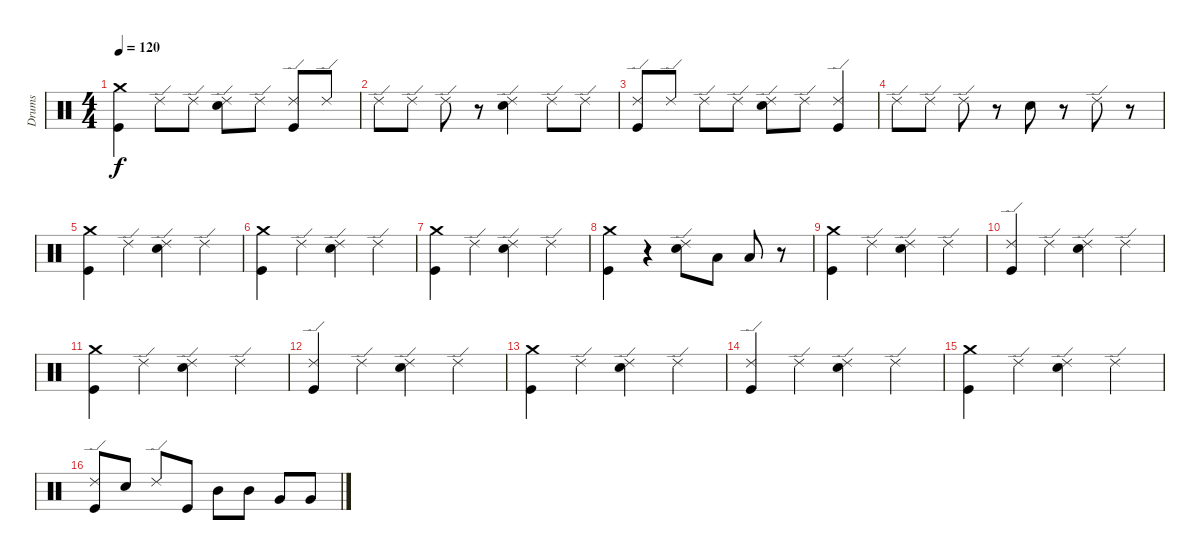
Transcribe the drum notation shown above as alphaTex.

\track ("Drums" "Drums") {instrument percussion}
\staff {score}
\articulation defaults
\ts (4 4)
\tempo 120
\clef neutral
\ks c
("Kick (hit)" "Crash medium (hit)").4{dy f} "Ride (edge) 2".8 "Ride (edge) 2".8 ("Snare (hit) 2" "Ride (edge) 2").8 "Ride (edge) 2".8 ("Kick (hit)" "Ride (edge) 2").8 "Ride (edge) 2".8 |
"Ride (edge) 2".8 "Ride (edge) 2".8 "Ride (edge) 2".8 r.8 ("Ride (edge) 2" "Snare (hit) 2").4 "Ride (edge) 2".8 "Ride (edge) 2".8 |
("Ride (edge) 2" "Kick (hit)").8 "Ride (edge) 2".8 "Ride (edge) 2".8 "Ride (edge) 2".8 ("Ride (edge) 2" "Snare (hit) 2").8 "Ride (edge) 2".8 ("Ride (edge) 2" "Kick (hit)").4 |
"Ride (edge) 2".8 "Ride (edge) 2".8 "Ride (edge) 2".8 r.8 "Snare (hit) 2".8 r.8 "Ride (edge) 2".8 r.8 |
("Crash medium (hit)" "Kick (hit)").4 "Ride (edge) 2".4 ("Snare (hit) 2" "Ride (edge) 2").4 "Ride (edge) 2".4 |
("Crash medium (hit)" "Kick (hit)").4 "Ride (edge) 2".4 ("Snare (hit) 2" "Ride (edge) 2").4 "Ride (edge) 2".4 |
("Crash medium (hit)" "Kick (hit)").4 "Ride (edge) 2".4 ("Snare (hit) 2" "Ride (edge) 2").4 "Ride (edge) 2".4 |
("Crash medium (hit)" "Kick (hit)").4 r.4 ("Ride (edge) 2" "Snare (hit) 2").8 "Low Floor Tom (hit)".8 "Low Floor Tom (hit)".8 r.8 |
("Crash medium (hit)" "Kick (hit)").4 "Ride (edge) 2".4 ("Snare (hit) 2" "Ride (edge) 2").4 "Ride (edge) 2".4 |
("Ride (edge) 2" "Kick (hit)").4 "Ride (edge) 2".4 ("Ride (edge) 2" "Snare (hit) 2").4 "Ride (edge) 2".4 |
("Crash medium (hit)" "Kick (hit)").4 "Ride (edge) 2".4 ("Snare (hit) 2" "Ride (edge) 2").4 "Ride (edge) 2".4 |
("Ride (edge) 2" "Kick (hit)").4 "Ride (edge) 2".4 ("Ride (edge) 2" "Snare (hit) 2").4 "Ride (edge) 2".4 |
("Crash medium (hit)" "Kick (hit)").4 "Ride (edge) 2".4 ("Snare (hit) 2" "Ride (edge) 2").4 "Ride (edge) 2".4 |
("Ride (edge) 2" "Kick (hit)").4 "Ride (edge) 2".4 ("Ride (edge) 2" "Snare (hit) 2").4 "Ride (edge) 2".4 |
("Crash medium (hit)" "Kick (hit)").4 "Ride (edge) 2".4 ("Ride (edge) 2" "Snare (hit) 2").4 "Ride (edge) 2".4 |
("Kick (hit)" "Ride (edge) 2").8 "Snare (hit) 2".8 "Ride (edge) 2".8 "Kick (hit)".8 "Mid Tom (hit)".8 "Mid Tom (hit)".8 "Very Low Tom (hit)".8 "Very Low Tom (hit)".8
